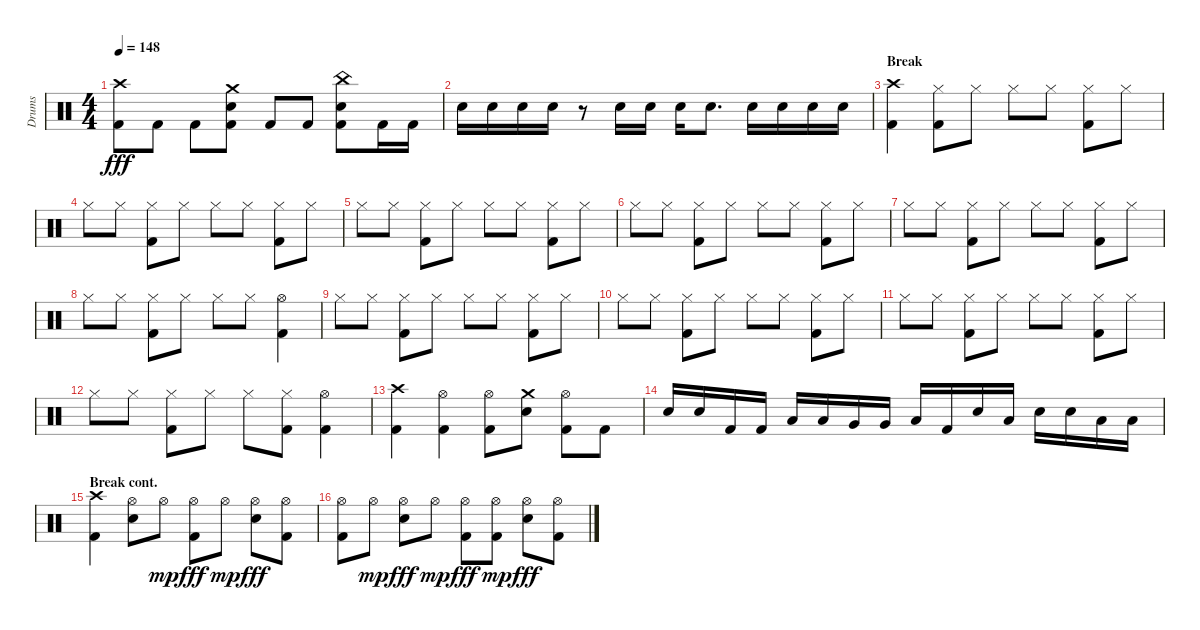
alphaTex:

\track ("Drums" "Drums") {instrument percussion}
\staff {score}
\articulation defaults
\ts (4 4)
\tempo 148
\clef neutral
\ks aminor
("Crash high (hit)" "Kick (hit) 2").8{dy fff} "Kick (hit) 2".8 "Kick (hit) 2".8 ("Snare (hit) 2" "Kick (hit) 2" "Crash medium (hit)").8 "Kick (hit) 2".8 "Kick (hit) 2".8 ("Kick (hit) 2" "Snare (hit) 2" "China (hit)").8 "Kick (hit) 2".16 "Kick (hit) 2".16 |
"Snare (hit) 2".16 "Snare (hit) 2".16 "Snare (hit) 2".16 "Snare (hit) 2".16 r.8 "Snare (hit) 2".16 "Snare (hit) 2".16 "Snare (hit) 2".16 "Snare (hit) 2".8{d} "Snare (hit) 2".16 "Snare (hit) 2".16 "Snare (hit) 2".16 "Snare (hit) 2".16 |
\section ("" "Break")
("Kick (hit) 2" "Crash high (hit)").4 ("Kick (hit) 2" "Hi-Hat (closed)").8 "Hi-Hat (closed)".8 "Hi-Hat (closed)".8 "Hi-Hat (closed)".8 ("Hi-Hat (closed)" "Kick (hit) 2").8 "Hi-Hat (closed)".8 |
"Hi-Hat (closed)".8 "Hi-Hat (closed)".8 ("Hi-Hat (closed)" "Kick (hit) 2").8 "Hi-Hat (closed)".8 "Hi-Hat (closed)".8 "Hi-Hat (closed)".8 ("Kick (hit) 2" "Hi-Hat (closed)").8 "Hi-Hat (closed)".8 |
"Hi-Hat (closed)".8 "Hi-Hat (closed)".8 ("Hi-Hat (closed)" "Kick (hit) 2").8 "Hi-Hat (closed)".8 "Hi-Hat (closed)".8 "Hi-Hat (closed)".8 ("Kick (hit) 2" "Hi-Hat (closed)").8 "Hi-Hat (closed)".8 |
"Hi-Hat (closed)".8 "Hi-Hat (closed)".8 ("Hi-Hat (closed)" "Kick (hit) 2").8 "Hi-Hat (closed)".8 "Hi-Hat (closed)".8 "Hi-Hat (closed)".8 ("Kick (hit) 2" "Hi-Hat (closed)").8 "Hi-Hat (closed)".8 |
"Hi-Hat (closed)".8 "Hi-Hat (closed)".8 ("Hi-Hat (closed)" "Kick (hit) 2").8 "Hi-Hat (closed)".8 "Hi-Hat (closed)".8 "Hi-Hat (closed)".8 ("Kick (hit) 2" "Hi-Hat (closed)").8 "Hi-Hat (closed)".8 |
"Hi-Hat (closed)".8 "Hi-Hat (closed)".8 ("Hi-Hat (closed)" "Kick (hit) 2").8 "Hi-Hat (closed)".8 "Hi-Hat (closed)".8 "Hi-Hat (closed)".8 ("Kick (hit) 2" "Hi-Hat (open)").4 |
"Hi-Hat (closed)".8 "Hi-Hat (closed)".8 ("Kick (hit) 2" "Hi-Hat (closed)").8 "Hi-Hat (closed)".8 "Hi-Hat (closed)".8 "Hi-Hat (closed)".8 ("Kick (hit) 2" "Hi-Hat (closed)").8 "Hi-Hat (closed)".8 |
"Hi-Hat (closed)".8 "Hi-Hat (closed)".8 ("Kick (hit) 2" "Hi-Hat (closed)").8 "Hi-Hat (closed)".8 "Hi-Hat (closed)".8 "Hi-Hat (closed)".8 ("Hi-Hat (closed)" "Kick (hit) 2").8 "Hi-Hat (closed)".8 |
"Hi-Hat (closed)".8 "Hi-Hat (closed)".8 ("Hi-Hat (closed)" "Kick (hit) 2").8 "Hi-Hat (closed)".8 "Hi-Hat (closed)".8 "Hi-Hat (closed)".8 ("Hi-Hat (closed)" "Kick (hit) 2").8 "Hi-Hat (closed)".8 |
"Hi-Hat (closed)".8 "Hi-Hat (closed)".8 ("Hi-Hat (closed)" "Kick (hit) 2").8 "Hi-Hat (closed)".8 "Hi-Hat (closed)".8 ("Hi-Hat (closed)" "Kick (hit) 2").8 ("Hi-Hat (open)" "Kick (hit) 2").4 |
("Crash high (hit)" "Kick (hit) 2").4 ("Kick (hit) 2" "Hi-Hat (open)").4 ("Hi-Hat (open)" "Kick (hit) 2").8 ("Crash medium (hit)" "Snare (hit) 2").8 ("Kick (hit) 2" "Hi-Hat (open)").8 "Kick (hit) 2".8 |
"Snare (hit) 2".16 "Snare (hit) 2".16 "Kick (hit) 2".16 "Kick (hit) 2".16 "Low Tom (hit)".16 "Low Tom (hit)".16 "Very Low Tom (hit)".16 "Very Low Tom (hit)".16 "Low Floor Tom (hit)".16 "Kick (hit) 2".16 "Snare (hit) 2".16 "Low Floor Tom (hit)".16 "Snare (hit) 2".16 "Snare (hit) 2".16 "Low Floor Tom (hit)".16 "Low Floor Tom (hit)".16 |
\section ("" "Break cont.")
("Crash high (hit)" "Kick (hit) 2").4 ("Hi-Hat (open)" "Snare (hit) 2").8 "Hi-Hat (open)".8{dy mp} ("Kick (hit) 2" "Hi-Hat (open)").8{dy fff} "Hi-Hat (open)".8{dy mp} ("Snare (hit) 2" "Hi-Hat (open)").8{dy fff} ("Kick (hit) 2" "Hi-Hat (open)").8 |
("Hi-Hat (open)" "Kick (hit) 2").8 "Hi-Hat (open)".8{dy mp} ("Hi-Hat (open)" "Snare (hit) 2").8{dy fff} "Hi-Hat (open)".8{dy mp} ("Kick (hit) 2" "Hi-Hat (open)").8{dy fff} ("Hi-Hat (open)" "Kick (hit) 2").8{dy mp} ("Hi-Hat (open)" "Snare (hit) 2").8{dy fff} ("Hi-Hat (open)" "Kick (hit) 2").8
